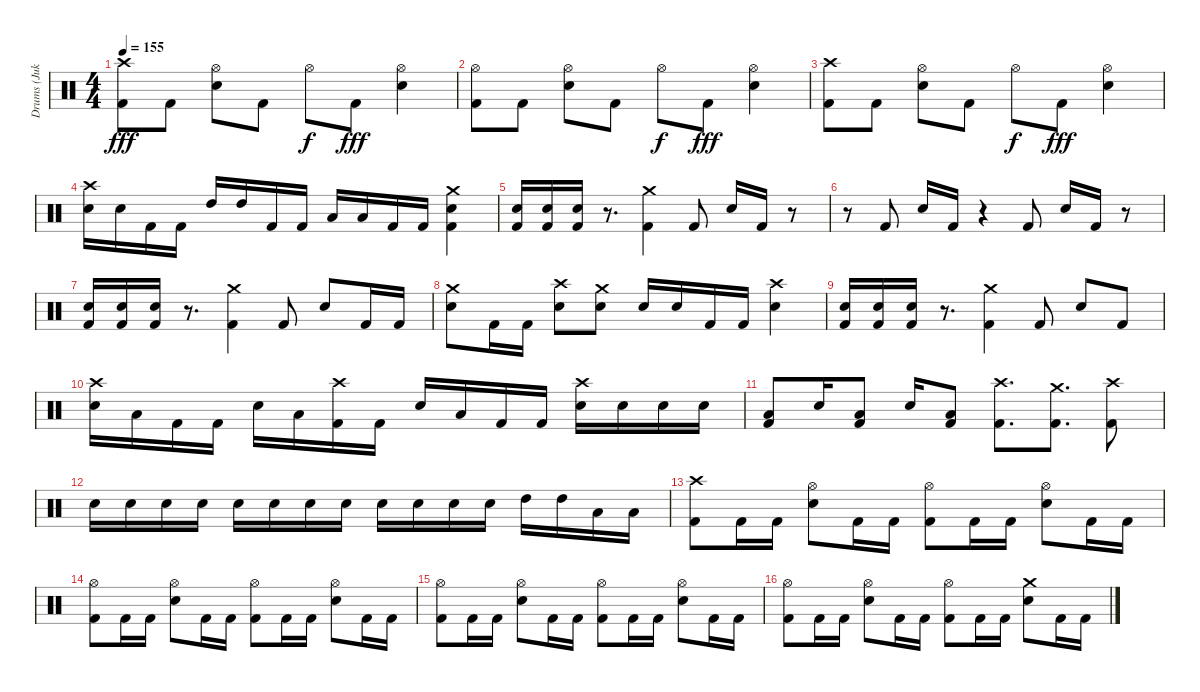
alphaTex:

\track ("Drums (Jukka)" "Drums (Juk") {instrument percussion}
\staff {score}
\articulation defaults
\ts (4 4)
\tempo 155
\clef neutral
\ks c
("Kick (hit) 2" "Crash high (hit)").8{dy fff} "Kick (hit) 2".8 ("Snare (hit) 2" "Hi-Hat (open)").8 "Kick (hit) 2".8 "Hi-Hat (open)".8{dy f} "Kick (hit) 2".8{dy fff} ("Snare (hit) 2" "Hi-Hat (open)").4 |
("Kick (hit) 2" "Hi-Hat (open)").8 "Kick (hit) 2".8 ("Snare (hit) 2" "Hi-Hat (open)").8 "Kick (hit) 2".8 "Hi-Hat (open)".8{dy f} "Kick (hit) 2".8{dy fff} ("Snare (hit) 2" "Hi-Hat (open)").4 |
("Kick (hit) 2" "Crash high (hit)").8 "Kick (hit) 2".8 ("Snare (hit) 2" "Hi-Hat (open)").8 "Kick (hit) 2".8 "Hi-Hat (open)".8{dy f} "Kick (hit) 2".8{dy fff} ("Snare (hit) 2" "Hi-Hat (open)").4 |
("Snare (hit) 2" "Crash high (hit)").16 "Snare (hit) 2".16 "Kick (hit) 2".16 "Kick (hit) 2".16 "High Tom (hit)".16 "High Tom (hit)".16 "Kick (hit) 2".16 "Kick (hit) 2".16 "Low Tom (hit)".16 "Low Tom (hit)".16 "Kick (hit) 2".16 "Kick (hit) 2".16 ("Kick (hit) 2" "Snare (hit) 2" "Crash medium (hit)").4 |
("Snare (hit) 2" "Kick (hit) 2").16 ("Snare (hit) 2" "Kick (hit) 2").16 ("Snare (hit) 2" "Kick (hit) 2").16 r.8{d} ("Kick (hit) 2" "Crash medium (hit)").4 "Kick (hit) 2".8 "Snare (hit) 2".16 "Kick (hit) 2".16 r.8 |
r.8 "Kick (hit) 2".8 "Snare (hit) 2".16 "Kick (hit) 2".16 r.4 "Kick (hit) 2".8 "Snare (hit) 2".16 "Kick (hit) 2".16 r.8 |
("Snare (hit) 2" "Kick (hit) 2").16 ("Snare (hit) 2" "Kick (hit) 2").16 ("Snare (hit) 2" "Kick (hit) 2").16 r.8{d} ("Kick (hit) 2" "Crash medium (hit)").4 "Kick (hit) 2".8 "Snare (hit) 2".8 "Kick (hit) 2".16 "Kick (hit) 2".16 |
("Snare (hit) 2" "Crash medium (hit)").8 "Kick (hit) 2".16 "Kick (hit) 2".16 ("Snare (hit) 2" "Crash high (hit)").8 ("Snare (hit) 2" "Crash medium (hit)").8 "Snare (hit) 2".16 "Snare (hit) 2".16 "Kick (hit) 2".16 "Kick (hit) 2".16 ("Snare (hit) 2" "Crash high (hit)").4 |
("Snare (hit) 2" "Kick (hit) 2").16 ("Snare (hit) 2" "Kick (hit) 2").16 ("Snare (hit) 2" "Kick (hit) 2").16 r.8{d} ("Kick (hit) 2" "Crash medium (hit)").4 "Kick (hit) 2".8 "Snare (hit) 2".8 "Kick (hit) 2".8 |
("Snare (hit) 2" "Crash high (hit)").16 "Low Tom (hit)".16 "Kick (hit) 2".16 "Kick (hit) 2".16 "Snare (hit) 2".16 "Low Tom (hit)".16 ("Kick (hit) 2" "Crash high (hit)").16 "Kick (hit) 2".16 "Snare (hit) 2".16 "Low Tom (hit)".16 "Kick (hit) 2".16 "Kick (hit) 2".16 ("Snare (hit) 2" "Crash high (hit)").16 "Snare (hit) 2".16 "Snare (hit) 2".16 "Snare (hit) 2".16 |
("Kick (hit) 2" "Low Tom (hit)").8 "Snare (hit) 2".16 ("Kick (hit) 2" "Low Tom (hit)").8 "Snare (hit) 2".16 ("Kick (hit) 2" "Low Tom (hit)").8 ("Kick (hit) 2" "Crash high (hit)").8{d} ("Kick (hit) 2" "Crash medium (hit)").8{d} ("Kick (hit) 2" "Crash high (hit)").8 |
"Snare (hit) 2".16 "Snare (hit) 2".16 "Snare (hit) 2".16 "Snare (hit) 2".16 "Snare (hit) 2".16 "Snare (hit) 2".16 "Snare (hit) 2".16 "Snare (hit) 2".16 "Snare (hit) 2".16 "Snare (hit) 2".16 "Snare (hit) 2".16 "Snare (hit) 2".16 "High Tom (hit)".16 "High Tom (hit)".16 "Low Tom (hit)".16 "Low Floor Tom (hit)".16 |
("Kick (hit) 2" "Crash high (hit)").8 "Kick (hit) 2".16 "Kick (hit) 2".16 ("Snare (hit) 2" "Hi-Hat (open)").8 "Kick (hit) 2".16 "Kick (hit) 2".16 ("Kick (hit) 2" "Hi-Hat (open)").8 "Kick (hit) 2".16 "Kick (hit) 2".16 ("Snare (hit) 2" "Hi-Hat (open)").8 "Kick (hit) 2".16 "Kick (hit) 2".16 |
("Kick (hit) 2" "Hi-Hat (open)").8 "Kick (hit) 2".16 "Kick (hit) 2".16 ("Snare (hit) 2" "Hi-Hat (open)").8 "Kick (hit) 2".16 "Kick (hit) 2".16 ("Kick (hit) 2" "Hi-Hat (open)").8 "Kick (hit) 2".16 "Kick (hit) 2".16 ("Snare (hit) 2" "Hi-Hat (open)").8 "Kick (hit) 2".16 "Kick (hit) 2".16 |
("Kick (hit) 2" "Hi-Hat (open)").8 "Kick (hit) 2".16 "Kick (hit) 2".16 ("Snare (hit) 2" "Hi-Hat (open)").8 "Kick (hit) 2".16 "Kick (hit) 2".16 ("Kick (hit) 2" "Hi-Hat (open)").8 "Kick (hit) 2".16 "Kick (hit) 2".16 ("Snare (hit) 2" "Hi-Hat (open)").8 "Kick (hit) 2".16 "Kick (hit) 2".16 |
("Kick (hit) 2" "Hi-Hat (open)").8 "Kick (hit) 2".16 "Kick (hit) 2".16 ("Snare (hit) 2" "Hi-Hat (open)").8 "Kick (hit) 2".16 "Kick (hit) 2".16 ("Kick (hit) 2" "Hi-Hat (open)").8 "Kick (hit) 2".16 "Kick (hit) 2".16 ("Snare (hit) 2" "Crash medium (hit)").8 "Kick (hit) 2".16 "Kick (hit) 2".16
